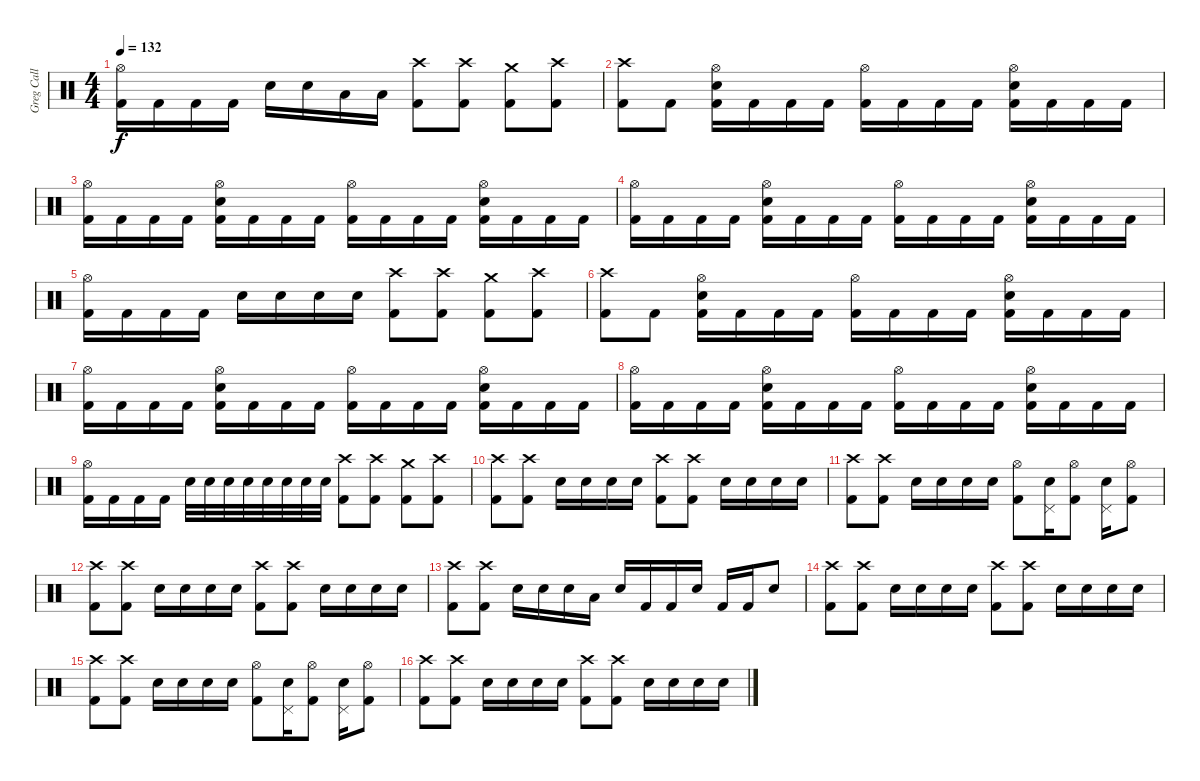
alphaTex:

\track ("Greg Call (Drums)" "Greg Call ") {instrument percussion}
\staff {score}
\articulation defaults
\ts (4 4)
\tempo 132
\clef neutral
\ks c
("Hi-Hat (open)" "Kick (hit) 2").16{dy f} "Kick (hit) 2".16 "Kick (hit) 2".16 "Kick (hit) 2".16 "Snare (hit) 2".16 "Snare (hit) 2".16 "Low Tom (hit)".16 "Low Floor Tom (hit)".16 ("Crash high (hit)" "Kick (hit) 2").8 ("Crash high (hit)" "Kick (hit) 2").8 ("Crash medium (hit)" "Kick (hit) 2").8 ("Crash high (hit)" "Kick (hit) 2").8 |
("Crash high (hit)" "Kick (hit) 2").8 "Kick (hit) 2".8 ("Hi-Hat (open)" "Snare (hit) 2" "Kick (hit) 2").16 "Kick (hit) 2".16 "Kick (hit) 2".16 "Kick (hit) 2".16 ("Hi-Hat (open)" "Kick (hit) 2").16 "Kick (hit) 2".16 "Kick (hit) 2".16 "Kick (hit) 2".16 ("Hi-Hat (open)" "Snare (hit) 2" "Kick (hit) 2").16 "Kick (hit) 2".16 "Kick (hit) 2".16 "Kick (hit) 2".16 |
("Hi-Hat (open)" "Kick (hit) 2").16 "Kick (hit) 2".16 "Kick (hit) 2".16 "Kick (hit) 2".16 ("Hi-Hat (open)" "Snare (hit) 2" "Kick (hit) 2").16 "Kick (hit) 2".16 "Kick (hit) 2".16 "Kick (hit) 2".16 ("Hi-Hat (open)" "Kick (hit) 2").16 "Kick (hit) 2".16 "Kick (hit) 2".16 "Kick (hit) 2".16 ("Hi-Hat (open)" "Snare (hit) 2" "Kick (hit) 2").16 "Kick (hit) 2".16 "Kick (hit) 2".16 "Kick (hit) 2".16 |
("Hi-Hat (open)" "Kick (hit) 2").16 "Kick (hit) 2".16 "Kick (hit) 2".16 "Kick (hit) 2".16 ("Hi-Hat (open)" "Snare (hit) 2" "Kick (hit) 2").16 "Kick (hit) 2".16 "Kick (hit) 2".16 "Kick (hit) 2".16 ("Hi-Hat (open)" "Kick (hit) 2").16 "Kick (hit) 2".16 "Kick (hit) 2".16 "Kick (hit) 2".16 ("Hi-Hat (open)" "Snare (hit) 2" "Kick (hit) 2").16 "Kick (hit) 2".16 "Kick (hit) 2".16 "Kick (hit) 2".16 |
("Hi-Hat (open)" "Kick (hit) 2").16 "Kick (hit) 2".16 "Kick (hit) 2".16 "Kick (hit) 2".16 "Snare (hit) 2".16 "Snare (hit) 2".16 "Snare (hit) 2".16 "Snare (hit) 2".16 ("Crash high (hit)" "Kick (hit) 2").8 ("Crash high (hit)" "Kick (hit) 2").8 ("Crash medium (hit)" "Kick (hit) 2").8 ("Crash high (hit)" "Kick (hit) 2").8 |
("Crash high (hit)" "Kick (hit) 2").8 "Kick (hit) 2".8 ("Hi-Hat (open)" "Snare (hit) 2" "Kick (hit) 2").16 "Kick (hit) 2".16 "Kick (hit) 2".16 "Kick (hit) 2".16 ("Hi-Hat (open)" "Kick (hit) 2").16 "Kick (hit) 2".16 "Kick (hit) 2".16 "Kick (hit) 2".16 ("Hi-Hat (open)" "Snare (hit) 2" "Kick (hit) 2").16 "Kick (hit) 2".16 "Kick (hit) 2".16 "Kick (hit) 2".16 |
("Hi-Hat (open)" "Kick (hit) 2").16 "Kick (hit) 2".16 "Kick (hit) 2".16 "Kick (hit) 2".16 ("Hi-Hat (open)" "Snare (hit) 2" "Kick (hit) 2").16 "Kick (hit) 2".16 "Kick (hit) 2".16 "Kick (hit) 2".16 ("Hi-Hat (open)" "Kick (hit) 2").16 "Kick (hit) 2".16 "Kick (hit) 2".16 "Kick (hit) 2".16 ("Hi-Hat (open)" "Snare (hit) 2" "Kick (hit) 2").16 "Kick (hit) 2".16 "Kick (hit) 2".16 "Kick (hit) 2".16 |
("Hi-Hat (open)" "Kick (hit) 2").16 "Kick (hit) 2".16 "Kick (hit) 2".16 "Kick (hit) 2".16 ("Hi-Hat (open)" "Snare (hit) 2" "Kick (hit) 2").16 "Kick (hit) 2".16 "Kick (hit) 2".16 "Kick (hit) 2".16 ("Hi-Hat (open)" "Kick (hit) 2").16 "Kick (hit) 2".16 "Kick (hit) 2".16 "Kick (hit) 2".16 ("Hi-Hat (open)" "Snare (hit) 2" "Kick (hit) 2").16 "Kick (hit) 2".16 "Kick (hit) 2".16 "Kick (hit) 2".16 |
("Hi-Hat (open)" "Kick (hit) 2").16 "Kick (hit) 2".16 "Kick (hit) 2".16 "Kick (hit) 2".16 "Snare (hit) 2".32 "Snare (hit) 2".32 "Snare (hit) 2".32 "Snare (hit) 2".32 "Snare (hit) 2".32 "Snare (hit) 2".32 "Snare (hit) 2".32 "Snare (hit) 2".32 ("Crash high (hit)" "Kick (hit) 2").8 ("Crash high (hit)" "Kick (hit) 2").8 ("Crash medium (hit)" "Kick (hit) 2").8 ("Crash high (hit)" "Kick (hit) 2").8 |
("Crash high (hit)" "Kick (hit) 2").8 ("Crash high (hit)" "Kick (hit) 2").8 "Snare (hit) 2".16 "Snare (hit) 2".16 "Snare (hit) 2".16 "Snare (hit) 2".16 ("Crash high (hit)" "Kick (hit) 2").8 ("Crash high (hit)" "Kick (hit) 2").8 "Snare (hit) 2".16 "Snare (hit) 2".16 "Snare (hit) 2".16 "Snare (hit) 2".16 |
("Crash high (hit)" "Kick (hit) 2").8 ("Crash high (hit)" "Kick (hit) 2").8 "Snare (hit) 2".16 "Snare (hit) 2".16 "Snare (hit) 2".16 "Snare (hit) 2".16 ("Hi-Hat (open)" "Kick (hit) 2").8 ("Pedal Hi-Hat (hit)" "Snare (hit) 2").16 ("Hi-Hat (open)" "Kick (hit) 2").8 ("Pedal Hi-Hat (hit)" "Snare (hit) 2").16 ("Hi-Hat (open)" "Kick (hit) 2").8 |
("Crash high (hit)" "Kick (hit) 2").8 ("Crash high (hit)" "Kick (hit) 2").8 "Snare (hit) 2".16 "Snare (hit) 2".16 "Snare (hit) 2".16 "Snare (hit) 2".16 ("Crash high (hit)" "Kick (hit) 2").8 ("Crash high (hit)" "Kick (hit) 2").8 "Snare (hit) 2".16 "Snare (hit) 2".16 "Snare (hit) 2".16 "Snare (hit) 2".16 |
("Crash high (hit)" "Kick (hit) 2").8 ("Crash high (hit)" "Kick (hit) 2").8 "Snare (hit) 2".16 "Snare (hit) 2".16 "Snare (hit) 2".16 "Low Tom (hit)".16 "Snare (hit) 2".16 "Kick (hit) 2".16 "Kick (hit) 2".16 "Snare (hit) 2".16 "Kick (hit) 2".16 "Kick (hit) 2".16 "Snare (hit) 2".8 |
("Crash high (hit)" "Kick (hit) 2").8 ("Crash high (hit)" "Kick (hit) 2").8 "Snare (hit) 2".16 "Snare (hit) 2".16 "Snare (hit) 2".16 "Snare (hit) 2".16 ("Crash high (hit)" "Kick (hit) 2").8 ("Crash high (hit)" "Kick (hit) 2").8 "Snare (hit) 2".16 "Snare (hit) 2".16 "Snare (hit) 2".16 "Snare (hit) 2".16 |
("Crash high (hit)" "Kick (hit) 2").8 ("Crash high (hit)" "Kick (hit) 2").8 "Snare (hit) 2".16 "Snare (hit) 2".16 "Snare (hit) 2".16 "Snare (hit) 2".16 ("Hi-Hat (open)" "Kick (hit) 2").8 ("Pedal Hi-Hat (hit)" "Snare (hit) 2").16 ("Hi-Hat (open)" "Kick (hit) 2").8 ("Pedal Hi-Hat (hit)" "Snare (hit) 2").16 ("Hi-Hat (open)" "Kick (hit) 2").8 |
("Crash high (hit)" "Kick (hit) 2").8 ("Crash high (hit)" "Kick (hit) 2").8 "Snare (hit) 2".16 "Snare (hit) 2".16 "Snare (hit) 2".16 "Snare (hit) 2".16 ("Crash high (hit)" "Kick (hit) 2").8 ("Crash high (hit)" "Kick (hit) 2").8 "Snare (hit) 2".16 "Snare (hit) 2".16 "Snare (hit) 2".16 "Snare (hit) 2".16
